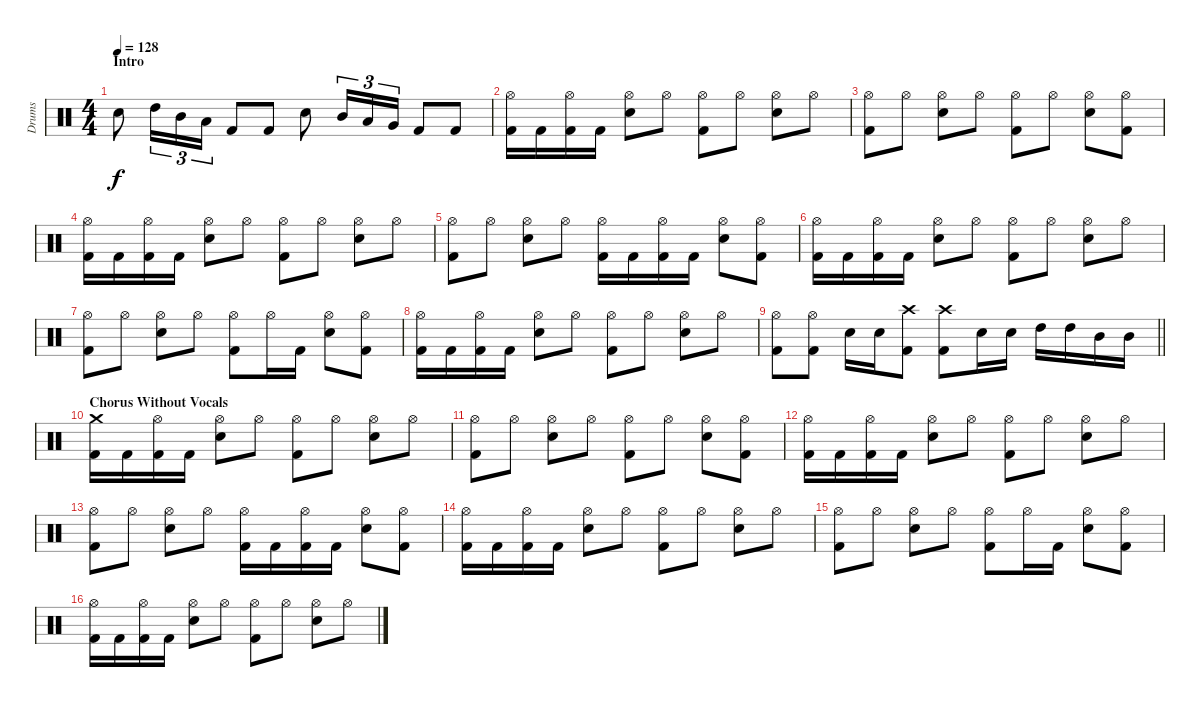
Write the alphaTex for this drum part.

\track ("Drums" "Drums") {instrument percussion}
\staff {score}
\articulation defaults
\ts (4 4)
\section ("" "Intro")
\tempo 128
\clef neutral
\ks c "Snare (hit) 2".8{dy f} "High Tom (hit)".16{tu (3 2)} "Mid Tom (hit)".16{tu (3 2)} "Low Tom (hit)".16{tu (3 2)} "Kick (hit) 2".8 "Kick (hit) 2".8 "Snare (hit) 2".8 "Mid Tom (hit)".16{tu (3 2)} "Low Tom (hit)".16{tu (3 2)} "Very Low Tom (hit)".16{tu (3 2)} "Kick (hit) 2".8 "Kick (hit) 2".8
|
("Hi-Hat (open)" "Kick (hit) 2").16 "Kick (hit) 2".16 ("Hi-Hat (open)" "Kick (hit) 2").16 "Kick (hit) 2".16 ("Hi-Hat (open)" "Snare (hit) 2").8 "Hi-Hat (open)".8 ("Hi-Hat (open)" "Kick (hit) 2").8 "Hi-Hat (open)".8 ("Hi-Hat (open)" "Snare (hit) 2").8 "Hi-Hat (open)".8 |
("Hi-Hat (open)" "Kick (hit) 2").8 "Hi-Hat (open)".8 ("Hi-Hat (open)" "Snare (hit) 2").8 "Hi-Hat (open)".8 ("Hi-Hat (open)" "Kick (hit) 2").8 "Hi-Hat (open)".8 ("Hi-Hat (open)" "Snare (hit) 2").8 ("Hi-Hat (open)" "Kick (hit) 2").8 |
("Hi-Hat (open)" "Kick (hit) 2").16 "Kick (hit) 2".16 ("Hi-Hat (open)" "Kick (hit) 2").16 "Kick (hit) 2".16 ("Hi-Hat (open)" "Snare (hit) 2").8 "Hi-Hat (open)".8 ("Hi-Hat (open)" "Kick (hit) 2").8 "Hi-Hat (open)".8 ("Hi-Hat (open)" "Snare (hit) 2").8 "Hi-Hat (open)".8 |
("Hi-Hat (open)" "Kick (hit) 2").8 "Hi-Hat (open)".8 ("Hi-Hat (open)" "Snare (hit) 2").8 "Hi-Hat (open)".8 ("Hi-Hat (open)" "Kick (hit) 2").16 "Kick (hit) 2".16 ("Hi-Hat (open)" "Kick (hit) 2").16 "Kick (hit) 2".16 ("Hi-Hat (open)" "Snare (hit) 2").8 ("Hi-Hat (open)" "Kick (hit) 2").8 |
("Hi-Hat (open)" "Kick (hit) 2").16 "Kick (hit) 2".16 ("Hi-Hat (open)" "Kick (hit) 2").16 "Kick (hit) 2".16 ("Hi-Hat (open)" "Snare (hit) 2").8 "Hi-Hat (open)".8 ("Hi-Hat (open)" "Kick (hit) 2").8 "Hi-Hat (open)".8 ("Hi-Hat (open)" "Snare (hit) 2").8 "Hi-Hat (open)".8 |
("Hi-Hat (open)" "Kick (hit) 2").8 "Hi-Hat (open)".8 ("Hi-Hat (open)" "Snare (hit) 2").8 "Hi-Hat (open)".8 ("Hi-Hat (open)" "Kick (hit) 2").8 "Hi-Hat (open)".16 "Kick (hit) 2".16 ("Hi-Hat (open)" "Snare (hit) 2").8 ("Hi-Hat (open)" "Kick (hit) 2").8 |
("Hi-Hat (open)" "Kick (hit) 2").16 "Kick (hit) 2".16 ("Hi-Hat (open)" "Kick (hit) 2").16 "Kick (hit) 2".16 ("Hi-Hat (open)" "Snare (hit) 2").8 "Hi-Hat (open)".8 ("Hi-Hat (open)" "Kick (hit) 2").8 "Hi-Hat (open)".8 ("Hi-Hat (open)" "Snare (hit) 2").8 "Hi-Hat (open)".8 |
\barLineRight lightlight
("Hi-Hat (open)" "Kick (hit) 2").8 ("Hi-Hat (open)" "Kick (hit) 2").8 "Snare (hit) 2".16 "Snare (hit) 2".16 ("Crash high (hit)" "Kick (hit) 2").8 ("Crash high (hit)" "Kick (hit) 2").8 "Snare (hit) 2".16 "Snare (hit) 2".16 "High Tom (hit)".16 "High Tom (hit)".16 "Mid Tom (hit)".16 "Mid Tom (hit)".16 |
\section ("" "Chorus Without Vocals")
("Crash medium (hit)" "Kick (hit) 2").16 "Kick (hit) 2".16 ("Hi-Hat (open)" "Kick (hit) 2").16 "Kick (hit) 2".16 ("Hi-Hat (open)" "Snare (hit) 2").8 "Hi-Hat (open)".8 ("Hi-Hat (open)" "Kick (hit) 2").8 "Hi-Hat (open)".8 ("Hi-Hat (open)" "Snare (hit) 2").8 "Hi-Hat (open)".8 |
("Hi-Hat (open)" "Kick (hit) 2").8 "Hi-Hat (open)".8 ("Hi-Hat (open)" "Snare (hit) 2").8 "Hi-Hat (open)".8 ("Hi-Hat (open)" "Kick (hit) 2").8 "Hi-Hat (open)".8 ("Hi-Hat (open)" "Snare (hit) 2").8 ("Hi-Hat (open)" "Kick (hit) 2").8 |
("Hi-Hat (open)" "Kick (hit) 2").16 "Kick (hit) 2".16 ("Hi-Hat (open)" "Kick (hit) 2").16 "Kick (hit) 2".16 ("Hi-Hat (open)" "Snare (hit) 2").8 "Hi-Hat (open)".8 ("Hi-Hat (open)" "Kick (hit) 2").8 "Hi-Hat (open)".8 ("Hi-Hat (open)" "Snare (hit) 2").8 "Hi-Hat (open)".8 |
("Hi-Hat (open)" "Kick (hit) 2").8 "Hi-Hat (open)".8 ("Hi-Hat (open)" "Snare (hit) 2").8 "Hi-Hat (open)".8 ("Hi-Hat (open)" "Kick (hit) 2").16 "Kick (hit) 2".16 ("Hi-Hat (open)" "Kick (hit) 2").16 "Kick (hit) 2".16 ("Hi-Hat (open)" "Snare (hit) 2").8 ("Hi-Hat (open)" "Kick (hit) 2").8 |
("Hi-Hat (open)" "Kick (hit) 2").16 "Kick (hit) 2".16 ("Hi-Hat (open)" "Kick (hit) 2").16 "Kick (hit) 2".16 ("Hi-Hat (open)" "Snare (hit) 2").8 "Hi-Hat (open)".8 ("Hi-Hat (open)" "Kick (hit) 2").8 "Hi-Hat (open)".8 ("Hi-Hat (open)" "Snare (hit) 2").8 "Hi-Hat (open)".8 |
("Hi-Hat (open)" "Kick (hit) 2").8 "Hi-Hat (open)".8 ("Hi-Hat (open)" "Snare (hit) 2").8 "Hi-Hat (open)".8 ("Hi-Hat (open)" "Kick (hit) 2").8 "Hi-Hat (open)".16 "Kick (hit) 2".16 ("Hi-Hat (open)" "Snare (hit) 2").8 ("Hi-Hat (open)" "Kick (hit) 2").8 |
("Hi-Hat (open)" "Kick (hit) 2").16 "Kick (hit) 2".16 ("Hi-Hat (open)" "Kick (hit) 2").16 "Kick (hit) 2".16 ("Hi-Hat (open)" "Snare (hit) 2").8 "Hi-Hat (open)".8 ("Hi-Hat (open)" "Kick (hit) 2").8 "Hi-Hat (open)".8 ("Hi-Hat (open)" "Snare (hit) 2").8 "Hi-Hat (open)".8
